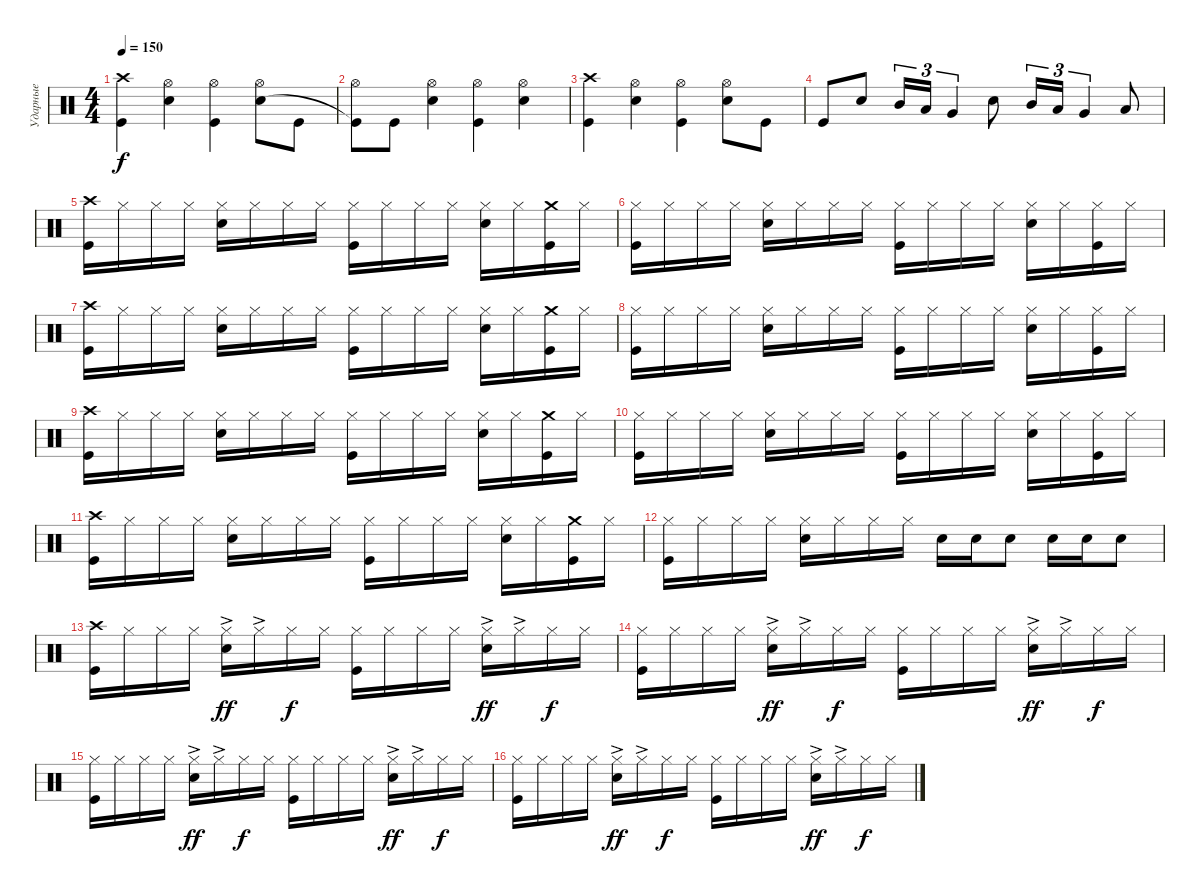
\track ("Ударные" "Ударные") {instrument percussion}
\staff {score}
\articulation defaults
\ts (4 4)
\tempo 150
\clef neutral
\ks c
("Crash high (hit)" "Kick (hit)").4{dy f} ("Hi-Hat (open)" "Snare (hit) 2").4 ("Hi-Hat (open)" "Kick (hit)").4 ("Hi-Hat (open)" "Snare (hit) 2").8 "Kick (hit)".8 |
("Hi-Hat (open)" "Kick (hit)"{t}).8 "Kick (hit)".8 ("Hi-Hat (open)" "Snare (hit) 2").4 ("Hi-Hat (open)" "Kick (hit)").4 ("Hi-Hat (open)" "Snare (hit) 2").4 |
("Crash high (hit)" "Kick (hit)").4 ("Hi-Hat (open)" "Snare (hit) 2").4 ("Hi-Hat (open)" "Kick (hit)").4 ("Hi-Hat (open)" "Snare (hit) 2").8 "Kick (hit)".8 |
"Kick (hit)".8 "Snare (hit) 2".8 "Mid Tom (hit)".16{tu (3 2)} "Low Tom (hit)".16{tu (3 2)} "Very Low Tom (hit)".4{tu (3 2)} "Snare (hit) 2".8 "Mid Tom (hit)".16{tu (3 2)} "Low Tom (hit)".16{tu (3 2)} "Very Low Tom (hit)".4{tu (3 2)} "Low Floor Tom (hit)".8 |
("Crash high (hit)" "Kick (hit)").16 "Hi-Hat (closed)".16 "Hi-Hat (closed)".16 "Hi-Hat (closed)".16 ("Hi-Hat (closed)" "Snare (hit) 2").16 "Hi-Hat (closed)".16 "Hi-Hat (closed)".16 "Hi-Hat (closed)".16 ("Hi-Hat (closed)" "Kick (hit)").16 "Hi-Hat (closed)".16 "Hi-Hat (closed)".16 "Hi-Hat (closed)".16 ("Hi-Hat (closed)" "Snare (hit) 2").16 "Hi-Hat (closed)".16 ("Crash medium (hit)" "Kick (hit)").16 "Hi-Hat (closed)".16 |
("Hi-Hat (closed)" "Kick (hit)").16 "Hi-Hat (closed)".16 "Hi-Hat (closed)".16 "Hi-Hat (closed)".16 ("Hi-Hat (closed)" "Snare (hit) 2").16 "Hi-Hat (closed)".16 "Hi-Hat (closed)".16 "Hi-Hat (closed)".16 ("Hi-Hat (closed)" "Kick (hit)").16 "Hi-Hat (closed)".16 "Hi-Hat (closed)".16 "Hi-Hat (closed)".16 ("Hi-Hat (closed)" "Snare (hit) 2").16 "Hi-Hat (closed)".16 ("Hi-Hat (closed)" "Kick (hit)").16 "Hi-Hat (closed)".16 |
("Crash high (hit)" "Kick (hit)").16 "Hi-Hat (closed)".16 "Hi-Hat (closed)".16 "Hi-Hat (closed)".16 ("Hi-Hat (closed)" "Snare (hit) 2").16 "Hi-Hat (closed)".16 "Hi-Hat (closed)".16 "Hi-Hat (closed)".16 ("Hi-Hat (closed)" "Kick (hit)").16 "Hi-Hat (closed)".16 "Hi-Hat (closed)".16 "Hi-Hat (closed)".16 ("Hi-Hat (closed)" "Snare (hit) 2").16 "Hi-Hat (closed)".16 ("Crash medium (hit)" "Kick (hit)").16 "Hi-Hat (closed)".16 |
("Hi-Hat (closed)" "Kick (hit)").16 "Hi-Hat (closed)".16 "Hi-Hat (closed)".16 "Hi-Hat (closed)".16 ("Hi-Hat (closed)" "Snare (hit) 2").16 "Hi-Hat (closed)".16 "Hi-Hat (closed)".16 "Hi-Hat (closed)".16 ("Hi-Hat (closed)" "Kick (hit)").16 "Hi-Hat (closed)".16 "Hi-Hat (closed)".16 "Hi-Hat (closed)".16 ("Hi-Hat (closed)" "Snare (hit) 2").16 "Hi-Hat (closed)".16 ("Hi-Hat (closed)" "Kick (hit)").16 "Hi-Hat (closed)".16 |
("Crash high (hit)" "Kick (hit)").16 "Hi-Hat (closed)".16 "Hi-Hat (closed)".16 "Hi-Hat (closed)".16 ("Hi-Hat (closed)" "Snare (hit) 2").16 "Hi-Hat (closed)".16 "Hi-Hat (closed)".16 "Hi-Hat (closed)".16 ("Hi-Hat (closed)" "Kick (hit)").16 "Hi-Hat (closed)".16 "Hi-Hat (closed)".16 "Hi-Hat (closed)".16 ("Hi-Hat (closed)" "Snare (hit) 2").16 "Hi-Hat (closed)".16 ("Crash medium (hit)" "Kick (hit)").16 "Hi-Hat (closed)".16 |
("Hi-Hat (closed)" "Kick (hit)").16 "Hi-Hat (closed)".16 "Hi-Hat (closed)".16 "Hi-Hat (closed)".16 ("Hi-Hat (closed)" "Snare (hit) 2").16 "Hi-Hat (closed)".16 "Hi-Hat (closed)".16 "Hi-Hat (closed)".16 ("Hi-Hat (closed)" "Kick (hit)").16 "Hi-Hat (closed)".16 "Hi-Hat (closed)".16 "Hi-Hat (closed)".16 ("Hi-Hat (closed)" "Snare (hit) 2").16 "Hi-Hat (closed)".16 ("Hi-Hat (closed)" "Kick (hit)").16 "Hi-Hat (closed)".16 |
("Crash high (hit)" "Kick (hit)").16 "Hi-Hat (closed)".16 "Hi-Hat (closed)".16 "Hi-Hat (closed)".16 ("Hi-Hat (closed)" "Snare (hit) 2").16 "Hi-Hat (closed)".16 "Hi-Hat (closed)".16 "Hi-Hat (closed)".16 ("Hi-Hat (closed)" "Kick (hit)").16 "Hi-Hat (closed)".16 "Hi-Hat (closed)".16 "Hi-Hat (closed)".16 ("Hi-Hat (closed)" "Snare (hit) 2").16 "Hi-Hat (closed)".16 ("Crash medium (hit)" "Kick (hit)").16 "Hi-Hat (closed)".16 |
("Hi-Hat (closed)" "Kick (hit)").16 "Hi-Hat (closed)".16 "Hi-Hat (closed)".16 "Hi-Hat (closed)".16 ("Hi-Hat (closed)" "Snare (hit) 2").16 "Hi-Hat (closed)".16 "Hi-Hat (closed)".16 "Hi-Hat (closed)".16 "Snare (hit) 2".16 "Snare (hit) 2".16 "Snare (hit) 2".8 "Snare (hit) 2".16 "Snare (hit) 2".16 "Snare (hit) 2".8 |
("Crash high (hit)" "Kick (hit)").16 "Hi-Hat (closed)".16 "Hi-Hat (closed)".16 "Hi-Hat (closed)".16 ("Hi-Hat (closed)"{ac} "Snare (hit) 2").16{dy ff} "Hi-Hat (closed)"{ac}.16 "Hi-Hat (closed)".16{dy f} "Hi-Hat (closed)".16 ("Hi-Hat (closed)" "Kick (hit)").16 "Hi-Hat (closed)".16 "Hi-Hat (closed)".16 "Hi-Hat (closed)".16 ("Hi-Hat (closed)"{ac} "Snare (hit) 2").16{dy ff} "Hi-Hat (closed)"{ac}.16 "Hi-Hat (closed)".16{dy f} "Hi-Hat (closed)".16 |
("Hi-Hat (closed)" "Kick (hit)").16 "Hi-Hat (closed)".16 "Hi-Hat (closed)".16 "Hi-Hat (closed)".16 ("Hi-Hat (closed)"{ac} "Snare (hit) 2").16{dy ff} "Hi-Hat (closed)"{ac}.16 "Hi-Hat (closed)".16{dy f} "Hi-Hat (closed)".16 ("Hi-Hat (closed)" "Kick (hit)").16 "Hi-Hat (closed)".16 "Hi-Hat (closed)".16 "Hi-Hat (closed)".16 ("Hi-Hat (closed)"{ac} "Snare (hit) 2").16{dy ff} "Hi-Hat (closed)"{ac}.16 "Hi-Hat (closed)".16{dy f} "Hi-Hat (closed)".16 |
("Hi-Hat (closed)" "Kick (hit)").16 "Hi-Hat (closed)".16 "Hi-Hat (closed)".16 "Hi-Hat (closed)".16 ("Hi-Hat (closed)"{ac} "Snare (hit) 2").16{dy ff} "Hi-Hat (closed)"{ac}.16 "Hi-Hat (closed)".16{dy f} "Hi-Hat (closed)".16 ("Hi-Hat (closed)" "Kick (hit)").16 "Hi-Hat (closed)".16 "Hi-Hat (closed)".16 "Hi-Hat (closed)".16 ("Hi-Hat (closed)"{ac} "Snare (hit) 2").16{dy ff} "Hi-Hat (closed)"{ac}.16 "Hi-Hat (closed)".16{dy f} "Hi-Hat (closed)".16 |
("Hi-Hat (closed)" "Kick (hit)").16 "Hi-Hat (closed)".16 "Hi-Hat (closed)".16 "Hi-Hat (closed)".16 ("Hi-Hat (closed)"{ac} "Snare (hit) 2").16{dy ff} "Hi-Hat (closed)"{ac}.16 "Hi-Hat (closed)".16{dy f} "Hi-Hat (closed)".16 ("Hi-Hat (closed)" "Kick (hit)").16 "Hi-Hat (closed)".16 "Hi-Hat (closed)".16 "Hi-Hat (closed)".16 ("Hi-Hat (closed)"{ac} "Snare (hit) 2").16{dy ff} "Hi-Hat (closed)"{ac}.16 "Hi-Hat (closed)".16{dy f} "Hi-Hat (closed)".16
